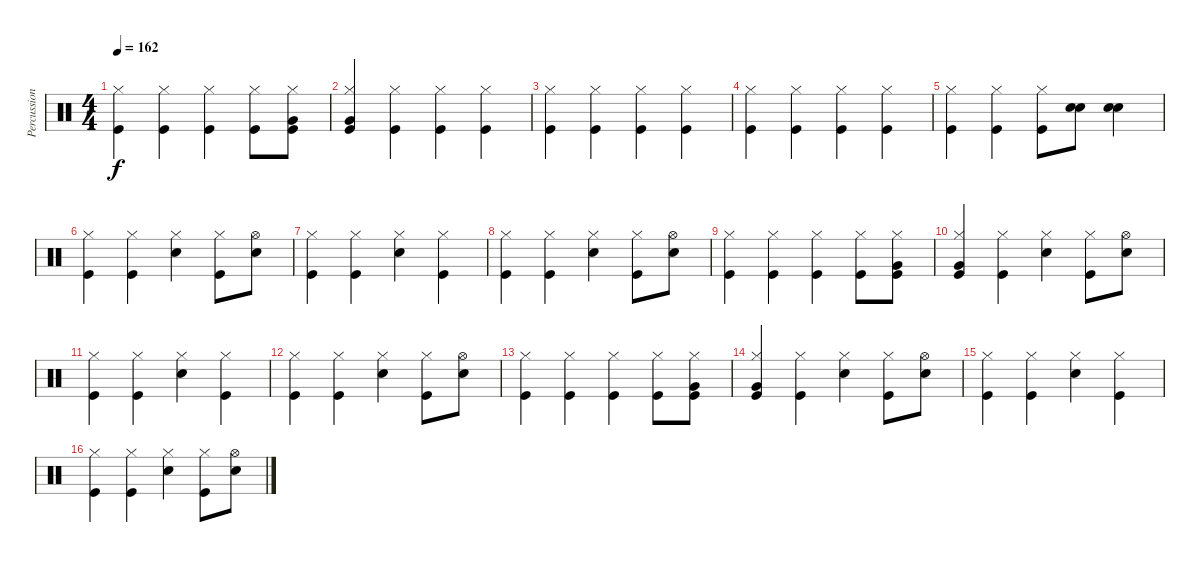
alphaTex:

\track ("Percussioni" "Percussion") {instrument percussion}
\staff {score}
\articulation defaults
\ts (4 4)
\tempo 162
\clef neutral
\ks c
("Kick (hit)" "Hi-Hat (closed)").4{dy f} ("Kick (hit)" "Hi-Hat (closed)").4 ("Kick (hit)" "Hi-Hat (closed)").4 ("Kick (hit)" "Hi-Hat (closed)").8 ("Very Low Tom (hit)" "Kick (hit)" "Hi-Hat (closed)").8 |
("Very Low Tom (hit)" "Kick (hit)" "Hi-Hat (closed)").4 ("Kick (hit)" "Hi-Hat (closed)").4 ("Kick (hit)" "Hi-Hat (closed)").4 ("Kick (hit)" "Hi-Hat (closed)").4 |
("Kick (hit)" "Hi-Hat (closed)").4 ("Kick (hit)" "Hi-Hat (closed)").4 ("Kick (hit)" "Hi-Hat (closed)").4 ("Kick (hit)" "Hi-Hat (closed)").4 |
("Kick (hit)" "Hi-Hat (closed)").4 ("Kick (hit)" "Hi-Hat (closed)").4 ("Kick (hit)" "Hi-Hat (closed)").4 ("Kick (hit)" "Hi-Hat (closed)").4 |
("Kick (hit)" "Hi-Hat (closed)").4 ("Kick (hit)" "Hi-Hat (closed)").4 ("Kick (hit)" "Hi-Hat (closed)").8 ("Snare (hit) 2" "Snare (hit) 2").8 ("Snare (hit) 2" "Snare (hit) 2").4 |
("Kick (hit)" "Hi-Hat (closed)").4 ("Kick (hit)" "Hi-Hat (closed)").4 ("Snare (hit) 2" "Hi-Hat (closed)").4 ("Kick (hit)" "Hi-Hat (closed)").8 ("Snare (hit) 2" "Hi-Hat (open)").8 |
("Kick (hit)" "Hi-Hat (closed)").4 ("Kick (hit)" "Hi-Hat (closed)").4 ("Snare (hit) 2" "Hi-Hat (closed)").4 ("Kick (hit)" "Hi-Hat (closed)").4 |
("Kick (hit)" "Hi-Hat (closed)").4 ("Kick (hit)" "Hi-Hat (closed)").4 ("Snare (hit) 2" "Hi-Hat (closed)").4 ("Kick (hit)" "Hi-Hat (closed)").8 ("Snare (hit) 2" "Hi-Hat (open)").8 |
("Kick (hit)" "Hi-Hat (closed)").4 ("Kick (hit)" "Hi-Hat (closed)").4 ("Kick (hit)" "Hi-Hat (closed)").4 ("Kick (hit)" "Hi-Hat (closed)").8 ("Very Low Tom (hit)" "Kick (hit)" "Hi-Hat (closed)").8 |
("Very Low Tom (hit)" "Kick (hit)" "Hi-Hat (closed)").4 ("Kick (hit)" "Hi-Hat (closed)").4 ("Snare (hit) 2" "Hi-Hat (closed)").4 ("Kick (hit)" "Hi-Hat (closed)").8 ("Snare (hit) 2" "Hi-Hat (open)").8 |
("Kick (hit)" "Hi-Hat (closed)").4 ("Kick (hit)" "Hi-Hat (closed)").4 ("Snare (hit) 2" "Hi-Hat (closed)").4 ("Kick (hit)" "Hi-Hat (closed)").4 |
("Kick (hit)" "Hi-Hat (closed)").4 ("Kick (hit)" "Hi-Hat (closed)").4 ("Snare (hit) 2" "Hi-Hat (closed)").4 ("Kick (hit)" "Hi-Hat (closed)").8 ("Snare (hit) 2" "Hi-Hat (open)").8 |
("Kick (hit)" "Hi-Hat (closed)").4 ("Kick (hit)" "Hi-Hat (closed)").4 ("Kick (hit)" "Hi-Hat (closed)").4 ("Kick (hit)" "Hi-Hat (closed)").8 ("Very Low Tom (hit)" "Kick (hit)" "Hi-Hat (closed)").8 |
("Very Low Tom (hit)" "Kick (hit)" "Hi-Hat (closed)").4 ("Kick (hit)" "Hi-Hat (closed)").4 ("Snare (hit) 2" "Hi-Hat (closed)").4 ("Kick (hit)" "Hi-Hat (closed)").8 ("Snare (hit) 2" "Hi-Hat (open)").8 |
("Kick (hit)" "Hi-Hat (closed)").4 ("Kick (hit)" "Hi-Hat (closed)").4 ("Snare (hit) 2" "Hi-Hat (closed)").4 ("Kick (hit)" "Hi-Hat (closed)").4 |
("Kick (hit)" "Hi-Hat (closed)").4 ("Kick (hit)" "Hi-Hat (closed)").4 ("Snare (hit) 2" "Hi-Hat (closed)").4 ("Kick (hit)" "Hi-Hat (closed)").8 ("Snare (hit) 2" "Hi-Hat (open)").8
